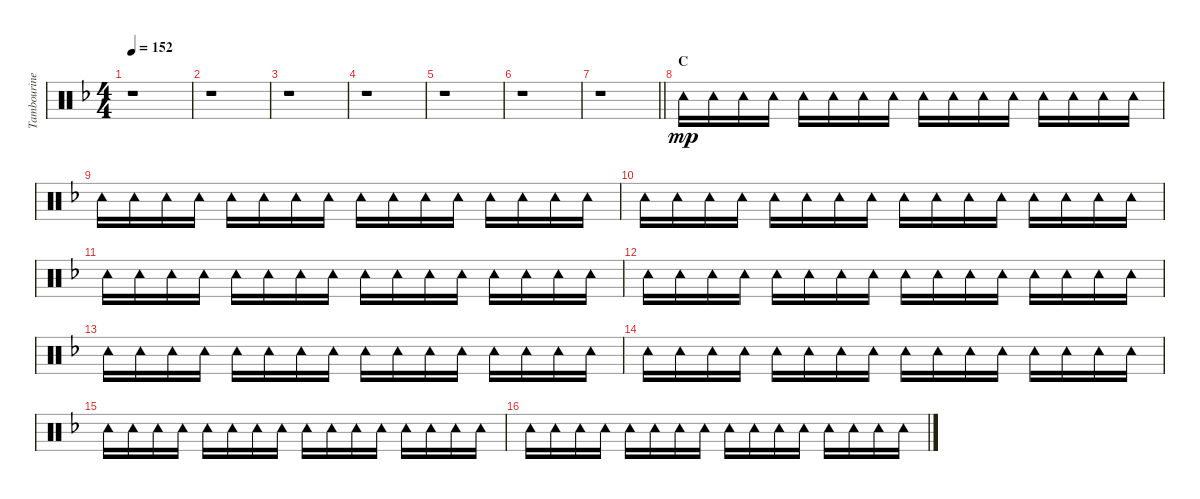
\track ("Tambourine" "Tambourine") {instrument percussion}
\staff {score}
\articulation defaults
\ts (4 4)
\tempo 152
\clef neutral
\ks f
r.1{dy mp} |
r.1 |
r.1 |
r.1 |
r.1 |
r.1 |
\barLineRight lightlight
r.1 |
\section ("" "C")
"Tambourine (hit)".16 "Tambourine (hit)".16 "Tambourine (hit)".16 "Tambourine (hit)".16 "Tambourine (hit)".16 "Tambourine (hit)".16 "Tambourine (hit)".16 "Tambourine (hit)".16 "Tambourine (hit)".16 "Tambourine (hit)".16 "Tambourine (hit)".16 "Tambourine (hit)".16 "Tambourine (hit)".16 "Tambourine (hit)".16 "Tambourine (hit)".16 "Tambourine (hit)".16 |
"Tambourine (hit)".16 "Tambourine (hit)".16 "Tambourine (hit)".16 "Tambourine (hit)".16 "Tambourine (hit)".16 "Tambourine (hit)".16 "Tambourine (hit)".16 "Tambourine (hit)".16 "Tambourine (hit)".16 "Tambourine (hit)".16 "Tambourine (hit)".16 "Tambourine (hit)".16 "Tambourine (hit)".16 "Tambourine (hit)".16 "Tambourine (hit)".16 "Tambourine (hit)".16 |
"Tambourine (hit)".16 "Tambourine (hit)".16 "Tambourine (hit)".16 "Tambourine (hit)".16 "Tambourine (hit)".16 "Tambourine (hit)".16 "Tambourine (hit)".16 "Tambourine (hit)".16 "Tambourine (hit)".16 "Tambourine (hit)".16 "Tambourine (hit)".16 "Tambourine (hit)".16 "Tambourine (hit)".16 "Tambourine (hit)".16 "Tambourine (hit)".16 "Tambourine (hit)".16 |
"Tambourine (hit)".16 "Tambourine (hit)".16 "Tambourine (hit)".16 "Tambourine (hit)".16 "Tambourine (hit)".16 "Tambourine (hit)".16 "Tambourine (hit)".16 "Tambourine (hit)".16 "Tambourine (hit)".16 "Tambourine (hit)".16 "Tambourine (hit)".16 "Tambourine (hit)".16 "Tambourine (hit)".16 "Tambourine (hit)".16 "Tambourine (hit)".16 "Tambourine (hit)".16 |
"Tambourine (hit)".16 "Tambourine (hit)".16 "Tambourine (hit)".16 "Tambourine (hit)".16 "Tambourine (hit)".16 "Tambourine (hit)".16 "Tambourine (hit)".16 "Tambourine (hit)".16 "Tambourine (hit)".16 "Tambourine (hit)".16 "Tambourine (hit)".16 "Tambourine (hit)".16 "Tambourine (hit)".16 "Tambourine (hit)".16 "Tambourine (hit)".16 "Tambourine (hit)".16 |
"Tambourine (hit)".16 "Tambourine (hit)".16 "Tambourine (hit)".16 "Tambourine (hit)".16 "Tambourine (hit)".16 "Tambourine (hit)".16 "Tambourine (hit)".16 "Tambourine (hit)".16 "Tambourine (hit)".16 "Tambourine (hit)".16 "Tambourine (hit)".16 "Tambourine (hit)".16 "Tambourine (hit)".16 "Tambourine (hit)".16 "Tambourine (hit)".16 "Tambourine (hit)".16 |
"Tambourine (hit)".16 "Tambourine (hit)".16 "Tambourine (hit)".16 "Tambourine (hit)".16 "Tambourine (hit)".16 "Tambourine (hit)".16 "Tambourine (hit)".16 "Tambourine (hit)".16 "Tambourine (hit)".16 "Tambourine (hit)".16 "Tambourine (hit)".16 "Tambourine (hit)".16 "Tambourine (hit)".16 "Tambourine (hit)".16 "Tambourine (hit)".16 "Tambourine (hit)".16 |
"Tambourine (hit)".16 "Tambourine (hit)".16 "Tambourine (hit)".16 "Tambourine (hit)".16 "Tambourine (hit)".16 "Tambourine (hit)".16 "Tambourine (hit)".16 "Tambourine (hit)".16 "Tambourine (hit)".16 "Tambourine (hit)".16 "Tambourine (hit)".16 "Tambourine (hit)".16 "Tambourine (hit)".16 "Tambourine (hit)".16 "Tambourine (hit)".16 "Tambourine (hit)".16 |
"Tambourine (hit)".16 "Tambourine (hit)".16 "Tambourine (hit)".16 "Tambourine (hit)".16 "Tambourine (hit)".16 "Tambourine (hit)".16 "Tambourine (hit)".16 "Tambourine (hit)".16 "Tambourine (hit)".16 "Tambourine (hit)".16 "Tambourine (hit)".16 "Tambourine (hit)".16 "Tambourine (hit)".16 "Tambourine (hit)".16 "Tambourine (hit)".16 "Tambourine (hit)".16
